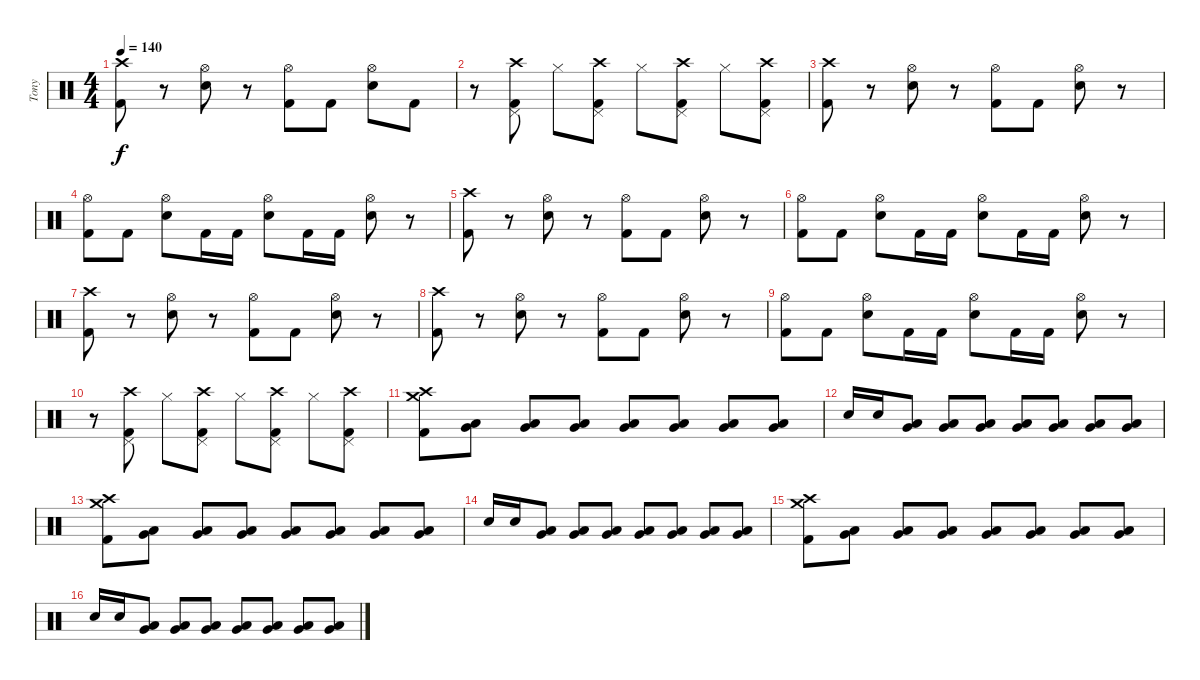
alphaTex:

\track ("Tony" "Tony") {instrument percussion}
\staff {score}
\articulation defaults
\ts (4 4)
\tempo 140
\clef neutral
\ks c
("Crash high (hit)" "Kick (hit) 2").8{dy f} r.8 ("Hi-Hat (open)" "Electric Snare (hit)").8 r.8 ("Hi-Hat (open)" "Kick (hit) 2").8 "Kick (hit) 2".8 ("Hi-Hat (open)" "Electric Snare (hit)").8 "Kick (hit) 2".8 |
r.8 ("Kick (hit) 2" "Pedal Hi-Hat (hit)" "Crash high (hit)").8 "Hi-Hat (closed)".8 ("Kick (hit) 2" "Pedal Hi-Hat (hit)" "Crash high (hit)").8 "Hi-Hat (closed)".8 ("Kick (hit) 2" "Pedal Hi-Hat (hit)" "Crash high (hit)").8 "Hi-Hat (closed)".8 ("Kick (hit) 2" "Pedal Hi-Hat (hit)" "Crash high (hit)").8 |
("Crash high (hit)" "Kick (hit) 2").8 r.8 ("Hi-Hat (open)" "Electric Snare (hit)").8 r.8 ("Hi-Hat (open)" "Kick (hit) 2").8 "Kick (hit) 2".8 ("Hi-Hat (open)" "Electric Snare (hit)").8 r.8 |
("Hi-Hat (open)" "Kick (hit) 2").8 "Kick (hit) 2".8 ("Hi-Hat (open)" "Electric Snare (hit)").8 "Kick (hit) 2".16 "Kick (hit) 2".16 ("Hi-Hat (open)" "Electric Snare (hit)").8 "Kick (hit) 2".16 "Kick (hit) 2".16 ("Hi-Hat (open)" "Electric Snare (hit)").8 r.8 |
("Crash high (hit)" "Kick (hit) 2").8 r.8 ("Hi-Hat (open)" "Electric Snare (hit)").8 r.8 ("Hi-Hat (open)" "Kick (hit) 2").8 "Kick (hit) 2".8 ("Hi-Hat (open)" "Electric Snare (hit)").8 r.8 |
("Hi-Hat (open)" "Kick (hit) 2").8 "Kick (hit) 2".8 ("Hi-Hat (open)" "Electric Snare (hit)").8 "Kick (hit) 2".16 "Kick (hit) 2".16 ("Hi-Hat (open)" "Electric Snare (hit)").8 "Kick (hit) 2".16 "Kick (hit) 2".16 ("Hi-Hat (open)" "Electric Snare (hit)").8 r.8 |
("Crash high (hit)" "Kick (hit) 2").8 r.8 ("Hi-Hat (open)" "Electric Snare (hit)").8 r.8 ("Hi-Hat (open)" "Kick (hit) 2").8 "Kick (hit) 2".8 ("Hi-Hat (open)" "Electric Snare (hit)").8 r.8 |
("Crash high (hit)" "Kick (hit) 2").8 r.8 ("Hi-Hat (open)" "Electric Snare (hit)").8 r.8 ("Hi-Hat (open)" "Kick (hit) 2").8 "Kick (hit) 2".8 ("Hi-Hat (open)" "Electric Snare (hit)").8 r.8 |
("Hi-Hat (open)" "Kick (hit) 2").8 "Kick (hit) 2".8 ("Hi-Hat (open)" "Electric Snare (hit)").8 "Kick (hit) 2".16 "Kick (hit) 2".16 ("Hi-Hat (open)" "Electric Snare (hit)").8 "Kick (hit) 2".16 "Kick (hit) 2".16 ("Hi-Hat (open)" "Electric Snare (hit)").8 r.8 |
r.8 ("Kick (hit) 2" "Pedal Hi-Hat (hit)" "Crash high (hit)").8 "Hi-Hat (closed)".8 ("Kick (hit) 2" "Pedal Hi-Hat (hit)" "Crash high (hit)").8 "Hi-Hat (closed)".8 ("Kick (hit) 2" "Pedal Hi-Hat (hit)" "Crash high (hit)").8 "Hi-Hat (closed)".8 ("Kick (hit) 2" "Pedal Hi-Hat (hit)" "Crash high (hit)").8 |
("Crash high (hit)" "Crash medium (hit)" "Kick (hit) 2").8 ("Low Tom (hit)" "Very Low Tom (hit)").8 ("Low Tom (hit)" "Very Low Tom (hit)").8 ("Low Tom (hit)" "Very Low Tom (hit)").8 ("Low Tom (hit)" "Very Low Tom (hit)").8 ("Low Tom (hit)" "Very Low Tom (hit)").8 ("Low Tom (hit)" "Very Low Tom (hit)").8 ("Low Tom (hit)" "Very Low Tom (hit)").8 |
"Electric Snare (hit)".16 "Electric Snare (hit)".16 ("Low Tom (hit)" "Very Low Tom (hit)").8 ("Low Tom (hit)" "Very Low Tom (hit)").8 ("Low Tom (hit)" "Very Low Tom (hit)").8 ("Low Tom (hit)" "Very Low Tom (hit)").8 ("Low Tom (hit)" "Very Low Tom (hit)").8 ("Low Tom (hit)" "Very Low Tom (hit)").8 ("Low Tom (hit)" "Very Low Tom (hit)").8 |
("Crash high (hit)" "Crash medium (hit)" "Kick (hit) 2").8 ("Low Tom (hit)" "Very Low Tom (hit)").8 ("Low Tom (hit)" "Very Low Tom (hit)").8 ("Low Tom (hit)" "Very Low Tom (hit)").8 ("Low Tom (hit)" "Very Low Tom (hit)").8 ("Low Tom (hit)" "Very Low Tom (hit)").8 ("Low Tom (hit)" "Very Low Tom (hit)").8 ("Low Tom (hit)" "Very Low Tom (hit)").8 |
"Electric Snare (hit)".16 "Electric Snare (hit)".16 ("Low Tom (hit)" "Very Low Tom (hit)").8 ("Low Tom (hit)" "Very Low Tom (hit)").8 ("Low Tom (hit)" "Very Low Tom (hit)").8 ("Low Tom (hit)" "Very Low Tom (hit)").8 ("Low Tom (hit)" "Very Low Tom (hit)").8 ("Low Tom (hit)" "Very Low Tom (hit)").8 ("Low Tom (hit)" "Very Low Tom (hit)").8 |
("Crash high (hit)" "Crash medium (hit)" "Kick (hit) 2").8 ("Low Tom (hit)" "Very Low Tom (hit)").8 ("Low Tom (hit)" "Very Low Tom (hit)").8 ("Low Tom (hit)" "Very Low Tom (hit)").8 ("Low Tom (hit)" "Very Low Tom (hit)").8 ("Low Tom (hit)" "Very Low Tom (hit)").8 ("Low Tom (hit)" "Very Low Tom (hit)").8 ("Low Tom (hit)" "Very Low Tom (hit)").8 |
"Electric Snare (hit)".16 "Electric Snare (hit)".16 ("Low Tom (hit)" "Very Low Tom (hit)").8 ("Low Tom (hit)" "Very Low Tom (hit)").8 ("Low Tom (hit)" "Very Low Tom (hit)").8 ("Low Tom (hit)" "Very Low Tom (hit)").8 ("Low Tom (hit)" "Very Low Tom (hit)").8 ("Low Tom (hit)" "Very Low Tom (hit)").8 ("Low Tom (hit)" "Very Low Tom (hit)").8
